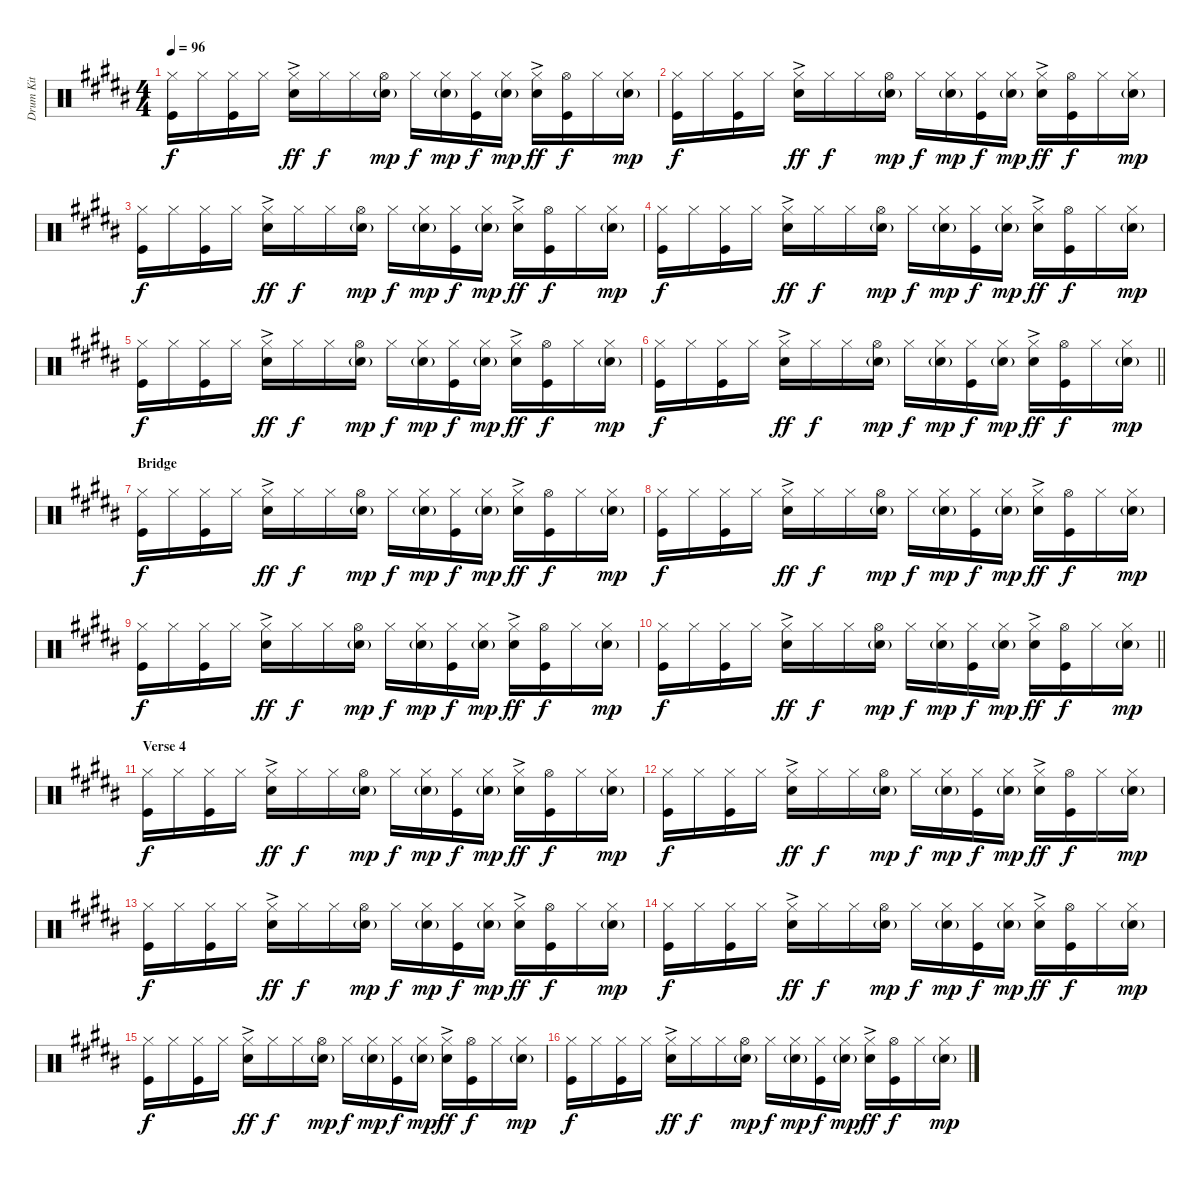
\track ("Drum Kit" "Drum Kit") {instrument percussion}
\staff {score}
\articulation defaults
\ts (4 4)
\tempo 96
\clef neutral
\ks b
("Kick (hit)" "Hi-Hat (closed)").16{dy f} "Hi-Hat (closed)".16 ("Kick (hit)" "Hi-Hat (closed)").16 "Hi-Hat (closed)".16 ("Snare (hit) 2"{ac} "Hi-Hat (closed)").16{dy ff} "Hi-Hat (closed)".16{dy f} "Hi-Hat (closed)".16 ("Snare (hit) 2"{g} "Hi-Hat (open)").16{dy mp} "Hi-Hat (closed)".16{dy f} ("Snare (hit) 2"{g} "Hi-Hat (closed)").16{dy mp} ("Kick (hit)" "Hi-Hat (closed)").16{dy f} ("Snare (hit) 2"{g} "Hi-Hat (closed)").16{dy mp} ("Snare (hit) 2"{ac} "Hi-Hat (closed)").16{dy ff} ("Kick (hit)" "Hi-Hat (open)").16{dy f} "Hi-Hat (closed)".16 ("Snare (hit) 2"{g} "Hi-Hat (closed)").16{dy mp} |
("Kick (hit)" "Hi-Hat (closed)").16{dy f} "Hi-Hat (closed)".16 ("Kick (hit)" "Hi-Hat (closed)").16 "Hi-Hat (closed)".16 ("Snare (hit) 2"{ac} "Hi-Hat (closed)").16{dy ff} "Hi-Hat (closed)".16{dy f} "Hi-Hat (closed)".16 ("Snare (hit) 2"{g} "Hi-Hat (open)").16{dy mp} "Hi-Hat (closed)".16{dy f} ("Snare (hit) 2"{g} "Hi-Hat (closed)").16{dy mp} ("Kick (hit)" "Hi-Hat (closed)").16{dy f} ("Snare (hit) 2"{g} "Hi-Hat (closed)").16{dy mp} ("Snare (hit) 2"{ac} "Hi-Hat (closed)").16{dy ff} ("Kick (hit)" "Hi-Hat (open)").16{dy f} "Hi-Hat (closed)".16 ("Snare (hit) 2"{g} "Hi-Hat (closed)").16{dy mp} |
("Kick (hit)" "Hi-Hat (closed)").16{dy f} "Hi-Hat (closed)".16 ("Kick (hit)" "Hi-Hat (closed)").16 "Hi-Hat (closed)".16 ("Snare (hit) 2"{ac} "Hi-Hat (closed)").16{dy ff} "Hi-Hat (closed)".16{dy f} "Hi-Hat (closed)".16 ("Snare (hit) 2"{g} "Hi-Hat (open)").16{dy mp} "Hi-Hat (closed)".16{dy f} ("Snare (hit) 2"{g} "Hi-Hat (closed)").16{dy mp} ("Kick (hit)" "Hi-Hat (closed)").16{dy f} ("Snare (hit) 2"{g} "Hi-Hat (closed)").16{dy mp} ("Snare (hit) 2"{ac} "Hi-Hat (closed)").16{dy ff} ("Kick (hit)" "Hi-Hat (open)").16{dy f} "Hi-Hat (closed)".16 ("Snare (hit) 2"{g} "Hi-Hat (closed)").16{dy mp} |
("Kick (hit)" "Hi-Hat (closed)").16{dy f} "Hi-Hat (closed)".16 ("Kick (hit)" "Hi-Hat (closed)").16 "Hi-Hat (closed)".16 ("Snare (hit) 2"{ac} "Hi-Hat (closed)").16{dy ff} "Hi-Hat (closed)".16{dy f} "Hi-Hat (closed)".16 ("Snare (hit) 2"{g} "Hi-Hat (open)").16{dy mp} "Hi-Hat (closed)".16{dy f} ("Snare (hit) 2"{g} "Hi-Hat (closed)").16{dy mp} ("Kick (hit)" "Hi-Hat (closed)").16{dy f} ("Snare (hit) 2"{g} "Hi-Hat (closed)").16{dy mp} ("Snare (hit) 2"{ac} "Hi-Hat (closed)").16{dy ff} ("Kick (hit)" "Hi-Hat (open)").16{dy f} "Hi-Hat (closed)".16 ("Snare (hit) 2"{g} "Hi-Hat (closed)").16{dy mp} |
("Kick (hit)" "Hi-Hat (closed)").16{dy f} "Hi-Hat (closed)".16 ("Kick (hit)" "Hi-Hat (closed)").16 "Hi-Hat (closed)".16 ("Snare (hit) 2"{ac} "Hi-Hat (closed)").16{dy ff} "Hi-Hat (closed)".16{dy f} "Hi-Hat (closed)".16 ("Snare (hit) 2"{g} "Hi-Hat (open)").16{dy mp} "Hi-Hat (closed)".16{dy f} ("Snare (hit) 2"{g} "Hi-Hat (closed)").16{dy mp} ("Kick (hit)" "Hi-Hat (closed)").16{dy f} ("Snare (hit) 2"{g} "Hi-Hat (closed)").16{dy mp} ("Snare (hit) 2"{ac} "Hi-Hat (closed)").16{dy ff} ("Kick (hit)" "Hi-Hat (open)").16{dy f} "Hi-Hat (closed)".16 ("Snare (hit) 2"{g} "Hi-Hat (closed)").16{dy mp} |
\barLineRight lightlight
("Kick (hit)" "Hi-Hat (closed)").16{dy f} "Hi-Hat (closed)".16 ("Kick (hit)" "Hi-Hat (closed)").16 "Hi-Hat (closed)".16 ("Snare (hit) 2"{ac} "Hi-Hat (closed)").16{dy ff} "Hi-Hat (closed)".16{dy f} "Hi-Hat (closed)".16 ("Snare (hit) 2"{g} "Hi-Hat (open)").16{dy mp} "Hi-Hat (closed)".16{dy f} ("Snare (hit) 2"{g} "Hi-Hat (closed)").16{dy mp} ("Kick (hit)" "Hi-Hat (closed)").16{dy f} ("Snare (hit) 2"{g} "Hi-Hat (closed)").16{dy mp} ("Snare (hit) 2"{ac} "Hi-Hat (closed)").16{dy ff} ("Kick (hit)" "Hi-Hat (open)").16{dy f} "Hi-Hat (closed)".16 ("Snare (hit) 2"{g} "Hi-Hat (closed)").16{dy mp} |
\section ("" "Bridge")
("Kick (hit)" "Hi-Hat (closed)").16{dy f} "Hi-Hat (closed)".16 ("Kick (hit)" "Hi-Hat (closed)").16 "Hi-Hat (closed)".16 ("Snare (hit) 2"{ac} "Hi-Hat (closed)").16{dy ff} "Hi-Hat (closed)".16{dy f} "Hi-Hat (closed)".16 ("Snare (hit) 2"{g} "Hi-Hat (open)").16{dy mp} "Hi-Hat (closed)".16{dy f} ("Snare (hit) 2"{g} "Hi-Hat (closed)").16{dy mp} ("Kick (hit)" "Hi-Hat (closed)").16{dy f} ("Snare (hit) 2"{g} "Hi-Hat (closed)").16{dy mp} ("Snare (hit) 2"{ac} "Hi-Hat (closed)").16{dy ff} ("Kick (hit)" "Hi-Hat (open)").16{dy f} "Hi-Hat (closed)".16 ("Snare (hit) 2"{g} "Hi-Hat (closed)").16{dy mp} |
("Kick (hit)" "Hi-Hat (closed)").16{dy f} "Hi-Hat (closed)".16 ("Kick (hit)" "Hi-Hat (closed)").16 "Hi-Hat (closed)".16 ("Snare (hit) 2"{ac} "Hi-Hat (closed)").16{dy ff} "Hi-Hat (closed)".16{dy f} "Hi-Hat (closed)".16 ("Snare (hit) 2"{g} "Hi-Hat (open)").16{dy mp} "Hi-Hat (closed)".16{dy f} ("Snare (hit) 2"{g} "Hi-Hat (closed)").16{dy mp} ("Kick (hit)" "Hi-Hat (closed)").16{dy f} ("Snare (hit) 2"{g} "Hi-Hat (closed)").16{dy mp} ("Snare (hit) 2"{ac} "Hi-Hat (closed)").16{dy ff} ("Kick (hit)" "Hi-Hat (open)").16{dy f} "Hi-Hat (closed)".16 ("Snare (hit) 2"{g} "Hi-Hat (closed)").16{dy mp} |
("Kick (hit)" "Hi-Hat (closed)").16{dy f} "Hi-Hat (closed)".16 ("Kick (hit)" "Hi-Hat (closed)").16 "Hi-Hat (closed)".16 ("Snare (hit) 2"{ac} "Hi-Hat (closed)").16{dy ff} "Hi-Hat (closed)".16{dy f} "Hi-Hat (closed)".16 ("Snare (hit) 2"{g} "Hi-Hat (open)").16{dy mp} "Hi-Hat (closed)".16{dy f} ("Snare (hit) 2"{g} "Hi-Hat (closed)").16{dy mp} ("Kick (hit)" "Hi-Hat (closed)").16{dy f} ("Snare (hit) 2"{g} "Hi-Hat (closed)").16{dy mp} ("Snare (hit) 2"{ac} "Hi-Hat (closed)").16{dy ff} ("Kick (hit)" "Hi-Hat (open)").16{dy f} "Hi-Hat (closed)".16 ("Snare (hit) 2"{g} "Hi-Hat (closed)").16{dy mp} |
\barLineRight lightlight
("Kick (hit)" "Hi-Hat (closed)").16{dy f} "Hi-Hat (closed)".16 ("Kick (hit)" "Hi-Hat (closed)").16 "Hi-Hat (closed)".16 ("Snare (hit) 2"{ac} "Hi-Hat (closed)").16{dy ff} "Hi-Hat (closed)".16{dy f} "Hi-Hat (closed)".16 ("Snare (hit) 2"{g} "Hi-Hat (open)").16{dy mp} "Hi-Hat (closed)".16{dy f} ("Snare (hit) 2"{g} "Hi-Hat (closed)").16{dy mp} ("Kick (hit)" "Hi-Hat (closed)").16{dy f} ("Snare (hit) 2"{g} "Hi-Hat (closed)").16{dy mp} ("Snare (hit) 2"{ac} "Hi-Hat (closed)").16{dy ff} ("Kick (hit)" "Hi-Hat (open)").16{dy f} "Hi-Hat (closed)".16 ("Snare (hit) 2"{g} "Hi-Hat (closed)").16{dy mp} |
\section ("" "Verse 4")
("Kick (hit)" "Hi-Hat (closed)").16{dy f} "Hi-Hat (closed)".16 ("Kick (hit)" "Hi-Hat (closed)").16 "Hi-Hat (closed)".16 ("Snare (hit) 2"{ac} "Hi-Hat (closed)").16{dy ff} "Hi-Hat (closed)".16{dy f} "Hi-Hat (closed)".16 ("Snare (hit) 2"{g} "Hi-Hat (open)").16{dy mp} "Hi-Hat (closed)".16{dy f} ("Snare (hit) 2"{g} "Hi-Hat (closed)").16{dy mp} ("Kick (hit)" "Hi-Hat (closed)").16{dy f} ("Snare (hit) 2"{g} "Hi-Hat (closed)").16{dy mp} ("Snare (hit) 2"{ac} "Hi-Hat (closed)").16{dy ff} ("Kick (hit)" "Hi-Hat (open)").16{dy f} "Hi-Hat (closed)".16 ("Snare (hit) 2"{g} "Hi-Hat (closed)").16{dy mp} |
("Kick (hit)" "Hi-Hat (closed)").16{dy f} "Hi-Hat (closed)".16 ("Kick (hit)" "Hi-Hat (closed)").16 "Hi-Hat (closed)".16 ("Snare (hit) 2"{ac} "Hi-Hat (closed)").16{dy ff} "Hi-Hat (closed)".16{dy f} "Hi-Hat (closed)".16 ("Snare (hit) 2"{g} "Hi-Hat (open)").16{dy mp} "Hi-Hat (closed)".16{dy f} ("Snare (hit) 2"{g} "Hi-Hat (closed)").16{dy mp} ("Kick (hit)" "Hi-Hat (closed)").16{dy f} ("Snare (hit) 2"{g} "Hi-Hat (closed)").16{dy mp} ("Snare (hit) 2"{ac} "Hi-Hat (closed)").16{dy ff} ("Kick (hit)" "Hi-Hat (open)").16{dy f} "Hi-Hat (closed)".16 ("Snare (hit) 2"{g} "Hi-Hat (closed)").16{dy mp} |
("Kick (hit)" "Hi-Hat (closed)").16{dy f} "Hi-Hat (closed)".16 ("Kick (hit)" "Hi-Hat (closed)").16 "Hi-Hat (closed)".16 ("Snare (hit) 2"{ac} "Hi-Hat (closed)").16{dy ff} "Hi-Hat (closed)".16{dy f} "Hi-Hat (closed)".16 ("Snare (hit) 2"{g} "Hi-Hat (open)").16{dy mp} "Hi-Hat (closed)".16{dy f} ("Snare (hit) 2"{g} "Hi-Hat (closed)").16{dy mp} ("Kick (hit)" "Hi-Hat (closed)").16{dy f} ("Snare (hit) 2"{g} "Hi-Hat (closed)").16{dy mp} ("Snare (hit) 2"{ac} "Hi-Hat (closed)").16{dy ff} ("Kick (hit)" "Hi-Hat (open)").16{dy f} "Hi-Hat (closed)".16 ("Snare (hit) 2"{g} "Hi-Hat (closed)").16{dy mp} |
("Kick (hit)" "Hi-Hat (closed)").16{dy f} "Hi-Hat (closed)".16 ("Kick (hit)" "Hi-Hat (closed)").16 "Hi-Hat (closed)".16 ("Snare (hit) 2"{ac} "Hi-Hat (closed)").16{dy ff} "Hi-Hat (closed)".16{dy f} "Hi-Hat (closed)".16 ("Snare (hit) 2"{g} "Hi-Hat (open)").16{dy mp} "Hi-Hat (closed)".16{dy f} ("Snare (hit) 2"{g} "Hi-Hat (closed)").16{dy mp} ("Kick (hit)" "Hi-Hat (closed)").16{dy f} ("Snare (hit) 2"{g} "Hi-Hat (closed)").16{dy mp} ("Snare (hit) 2"{ac} "Hi-Hat (closed)").16{dy ff} ("Kick (hit)" "Hi-Hat (open)").16{dy f} "Hi-Hat (closed)".16 ("Snare (hit) 2"{g} "Hi-Hat (closed)").16{dy mp} |
("Kick (hit)" "Hi-Hat (closed)").16{dy f} "Hi-Hat (closed)".16 ("Kick (hit)" "Hi-Hat (closed)").16 "Hi-Hat (closed)".16 ("Snare (hit) 2"{ac} "Hi-Hat (closed)").16{dy ff} "Hi-Hat (closed)".16{dy f} "Hi-Hat (closed)".16 ("Snare (hit) 2"{g} "Hi-Hat (open)").16{dy mp} "Hi-Hat (closed)".16{dy f} ("Snare (hit) 2"{g} "Hi-Hat (closed)").16{dy mp} ("Kick (hit)" "Hi-Hat (closed)").16{dy f} ("Snare (hit) 2"{g} "Hi-Hat (closed)").16{dy mp} ("Snare (hit) 2"{ac} "Hi-Hat (closed)").16{dy ff} ("Kick (hit)" "Hi-Hat (open)").16{dy f} "Hi-Hat (closed)".16 ("Snare (hit) 2"{g} "Hi-Hat (closed)").16{dy mp} |
("Kick (hit)" "Hi-Hat (closed)").16{dy f} "Hi-Hat (closed)".16 ("Kick (hit)" "Hi-Hat (closed)").16 "Hi-Hat (closed)".16 ("Snare (hit) 2"{ac} "Hi-Hat (closed)").16{dy ff} "Hi-Hat (closed)".16{dy f} "Hi-Hat (closed)".16 ("Snare (hit) 2"{g} "Hi-Hat (open)").16{dy mp} "Hi-Hat (closed)".16{dy f} ("Snare (hit) 2"{g} "Hi-Hat (closed)").16{dy mp} ("Kick (hit)" "Hi-Hat (closed)").16{dy f} ("Snare (hit) 2"{g} "Hi-Hat (closed)").16{dy mp} ("Snare (hit) 2"{ac} "Hi-Hat (closed)").16{dy ff} ("Kick (hit)" "Hi-Hat (open)").16{dy f} "Hi-Hat (closed)".16 ("Snare (hit) 2"{g} "Hi-Hat (closed)").16{dy mp}
